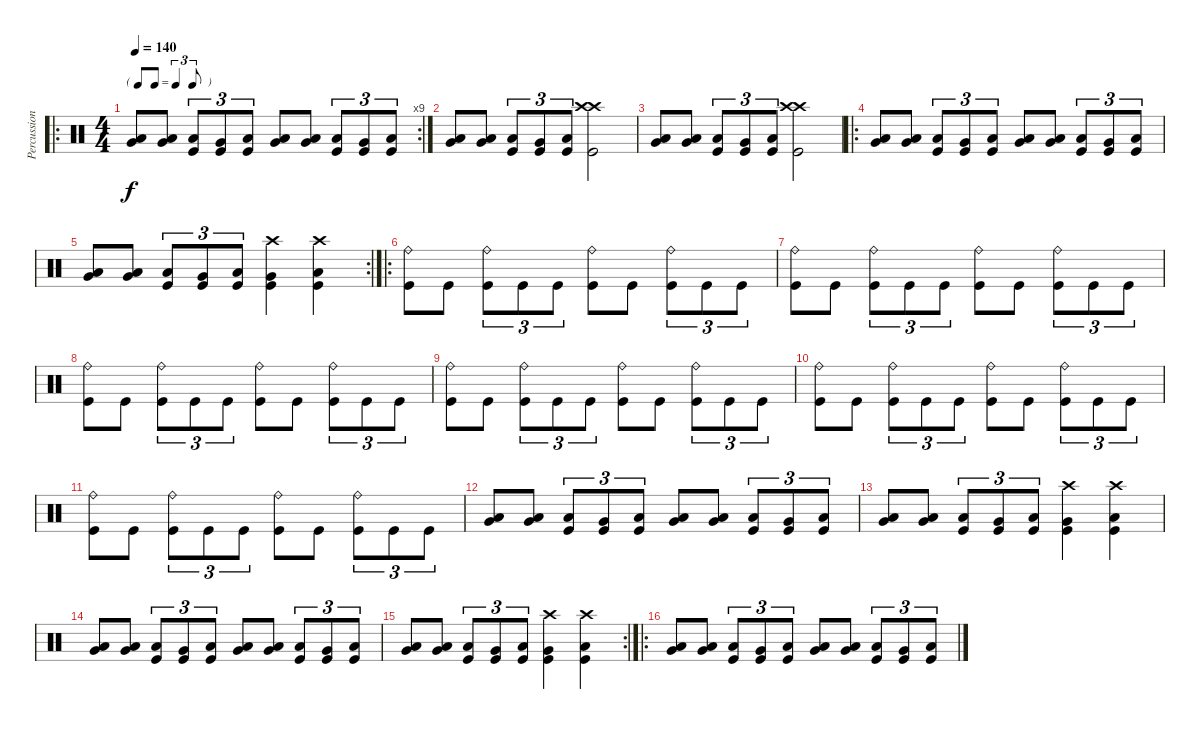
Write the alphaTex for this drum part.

\track ("Percussion" "Percussion") {instrument percussion}
\staff {score}
\articulation defaults
\ro
\rc 9
\ts (4 4)
\tf triplet8th
\tempo 140
\clef neutral
\ks c
("Very Low Tom (hit)" "Low Floor Tom (hit)").8{dy f} ("Very Low Tom (hit)" "Low Floor Tom (hit)").8 ("Low Floor Tom (hit)" "Kick (hit)").8{tu (3 2)} ("Very Low Tom (hit)" "Kick (hit)").8{tu (3 2)} ("Low Floor Tom (hit)" "Kick (hit)").8{tu (3 2)} ("Very Low Tom (hit)" "Low Floor Tom (hit)").8 ("Very Low Tom (hit)" "Low Floor Tom (hit)").8 ("Low Floor Tom (hit)" "Kick (hit)").8{tu (3 2)} ("Very Low Tom (hit)" "Kick (hit)").8{tu (3 2)} ("Low Floor Tom (hit)" "Kick (hit)").8{tu (3 2)} |
("Very Low Tom (hit)" "Low Floor Tom (hit)").8 ("Very Low Tom (hit)" "Low Floor Tom (hit)").8 ("Low Floor Tom (hit)" "Kick (hit)").8{tu (3 2)} ("Very Low Tom (hit)" "Kick (hit)").8{tu (3 2)} ("Low Floor Tom (hit)" "Kick (hit)").8{tu (3 2)} ("Crash high (hit)" "Crash high (hit)" "Kick (hit)").2 |
("Very Low Tom (hit)" "Low Floor Tom (hit)").8 ("Very Low Tom (hit)" "Low Floor Tom (hit)").8 ("Low Floor Tom (hit)" "Kick (hit)").8{tu (3 2)} ("Very Low Tom (hit)" "Kick (hit)").8{tu (3 2)} ("Low Floor Tom (hit)" "Kick (hit)").8{tu (3 2)} ("Crash high (hit)" "Crash high (hit)" "Kick (hit)").2 |
\ro
("Very Low Tom (hit)" "Low Floor Tom (hit)").8 ("Very Low Tom (hit)" "Low Floor Tom (hit)").8 ("Low Floor Tom (hit)" "Kick (hit)").8{tu (3 2)} ("Very Low Tom (hit)" "Kick (hit)").8{tu (3 2)} ("Low Floor Tom (hit)" "Kick (hit)").8{tu (3 2)} ("Very Low Tom (hit)" "Low Floor Tom (hit)").8 ("Very Low Tom (hit)" "Low Floor Tom (hit)").8 ("Low Floor Tom (hit)" "Kick (hit)").8{tu (3 2)} ("Very Low Tom (hit)" "Kick (hit)").8{tu (3 2)} ("Low Floor Tom (hit)" "Kick (hit)").8{tu (3 2)} |
\rc 2
("Very Low Tom (hit)" "Low Floor Tom (hit)").8 ("Very Low Tom (hit)" "Low Floor Tom (hit)").8 ("Low Floor Tom (hit)" "Kick (hit)").8{tu (3 2)} ("Very Low Tom (hit)" "Kick (hit)").8{tu (3 2)} ("Low Floor Tom (hit)" "Kick (hit)").8{tu (3 2)} ("Crash high (hit)" "Very Low Tom (hit)" "Kick (hit)").4 ("Crash high (hit)" "Low Floor Tom (hit)" "Kick (hit)").4 |
\ro
("Ride (bell)" "Kick (hit)").8 "Kick (hit)".8 ("Ride (bell)" "Kick (hit)").8{tu (3 2)} "Kick (hit)".8{tu (3 2)} "Kick (hit)".8{tu (3 2)} ("Ride (bell)" "Kick (hit)").8 "Kick (hit)".8 ("Ride (bell)" "Kick (hit)").8{tu (3 2)} "Kick (hit)".8{tu (3 2)} "Kick (hit)".8{tu (3 2)} |
("Ride (bell)" "Kick (hit)").8 "Kick (hit)".8 ("Ride (bell)" "Kick (hit)").8{tu (3 2)} "Kick (hit)".8{tu (3 2)} "Kick (hit)".8{tu (3 2)} ("Ride (bell)" "Kick (hit)").8 "Kick (hit)".8 ("Ride (bell)" "Kick (hit)").8{tu (3 2)} "Kick (hit)".8{tu (3 2)} "Kick (hit)".8{tu (3 2)} |
("Ride (bell)" "Kick (hit)").8 "Kick (hit)".8 ("Ride (bell)" "Kick (hit)").8{tu (3 2)} "Kick (hit)".8{tu (3 2)} "Kick (hit)".8{tu (3 2)} ("Ride (bell)" "Kick (hit)").8 "Kick (hit)".8 ("Ride (bell)" "Kick (hit)").8{tu (3 2)} "Kick (hit)".8{tu (3 2)} "Kick (hit)".8{tu (3 2)} |
("Ride (bell)" "Kick (hit)").8 "Kick (hit)".8 ("Ride (bell)" "Kick (hit)").8{tu (3 2)} "Kick (hit)".8{tu (3 2)} "Kick (hit)".8{tu (3 2)} ("Ride (bell)" "Kick (hit)").8 "Kick (hit)".8 ("Ride (bell)" "Kick (hit)").8{tu (3 2)} "Kick (hit)".8{tu (3 2)} "Kick (hit)".8{tu (3 2)} |
("Ride (bell)" "Kick (hit)").8 "Kick (hit)".8 ("Ride (bell)" "Kick (hit)").8{tu (3 2)} "Kick (hit)".8{tu (3 2)} "Kick (hit)".8{tu (3 2)} ("Ride (bell)" "Kick (hit)").8 "Kick (hit)".8 ("Ride (bell)" "Kick (hit)").8{tu (3 2)} "Kick (hit)".8{tu (3 2)} "Kick (hit)".8{tu (3 2)} |
("Ride (bell)" "Kick (hit)").8 "Kick (hit)".8 ("Ride (bell)" "Kick (hit)").8{tu (3 2)} "Kick (hit)".8{tu (3 2)} "Kick (hit)".8{tu (3 2)} ("Ride (bell)" "Kick (hit)").8 "Kick (hit)".8 ("Ride (bell)" "Kick (hit)").8{tu (3 2)} "Kick (hit)".8{tu (3 2)} "Kick (hit)".8{tu (3 2)} |
("Very Low Tom (hit)" "Low Floor Tom (hit)").8 ("Very Low Tom (hit)" "Low Floor Tom (hit)").8 ("Low Floor Tom (hit)" "Kick (hit)").8{tu (3 2)} ("Very Low Tom (hit)" "Kick (hit)").8{tu (3 2)} ("Low Floor Tom (hit)" "Kick (hit)").8{tu (3 2)} ("Very Low Tom (hit)" "Low Floor Tom (hit)").8 ("Very Low Tom (hit)" "Low Floor Tom (hit)").8 ("Low Floor Tom (hit)" "Kick (hit)").8{tu (3 2)} ("Very Low Tom (hit)" "Kick (hit)").8{tu (3 2)} ("Low Floor Tom (hit)" "Kick (hit)").8{tu (3 2)} |
("Very Low Tom (hit)" "Low Floor Tom (hit)").8 ("Very Low Tom (hit)" "Low Floor Tom (hit)").8 ("Low Floor Tom (hit)" "Kick (hit)").8{tu (3 2)} ("Very Low Tom (hit)" "Kick (hit)").8{tu (3 2)} ("Low Floor Tom (hit)" "Kick (hit)").8{tu (3 2)} ("Crash high (hit)" "Very Low Tom (hit)" "Kick (hit)").4 ("Crash high (hit)" "Low Floor Tom (hit)" "Kick (hit)").4 |
("Very Low Tom (hit)" "Low Floor Tom (hit)").8 ("Very Low Tom (hit)" "Low Floor Tom (hit)").8 ("Low Floor Tom (hit)" "Kick (hit)").8{tu (3 2)} ("Very Low Tom (hit)" "Kick (hit)").8{tu (3 2)} ("Low Floor Tom (hit)" "Kick (hit)").8{tu (3 2)} ("Very Low Tom (hit)" "Low Floor Tom (hit)").8 ("Very Low Tom (hit)" "Low Floor Tom (hit)").8 ("Low Floor Tom (hit)" "Kick (hit)").8{tu (3 2)} ("Very Low Tom (hit)" "Kick (hit)").8{tu (3 2)} ("Low Floor Tom (hit)" "Kick (hit)").8{tu (3 2)} |
\rc 2
("Very Low Tom (hit)" "Low Floor Tom (hit)").8 ("Very Low Tom (hit)" "Low Floor Tom (hit)").8 ("Low Floor Tom (hit)" "Kick (hit)").8{tu (3 2)} ("Very Low Tom (hit)" "Kick (hit)").8{tu (3 2)} ("Low Floor Tom (hit)" "Kick (hit)").8{tu (3 2)} ("Crash high (hit)" "Very Low Tom (hit)" "Kick (hit)").4 ("Crash high (hit)" "Low Floor Tom (hit)" "Kick (hit)").4 |
\ro
("Very Low Tom (hit)" "Low Floor Tom (hit)").8 ("Very Low Tom (hit)" "Low Floor Tom (hit)").8 ("Low Floor Tom (hit)" "Kick (hit)").8{tu (3 2)} ("Very Low Tom (hit)" "Kick (hit)").8{tu (3 2)} ("Low Floor Tom (hit)" "Kick (hit)").8{tu (3 2)} ("Very Low Tom (hit)" "Low Floor Tom (hit)").8 ("Very Low Tom (hit)" "Low Floor Tom (hit)").8 ("Low Floor Tom (hit)" "Kick (hit)").8{tu (3 2)} ("Very Low Tom (hit)" "Kick (hit)").8{tu (3 2)} ("Low Floor Tom (hit)" "Kick (hit)").8{tu (3 2)}
